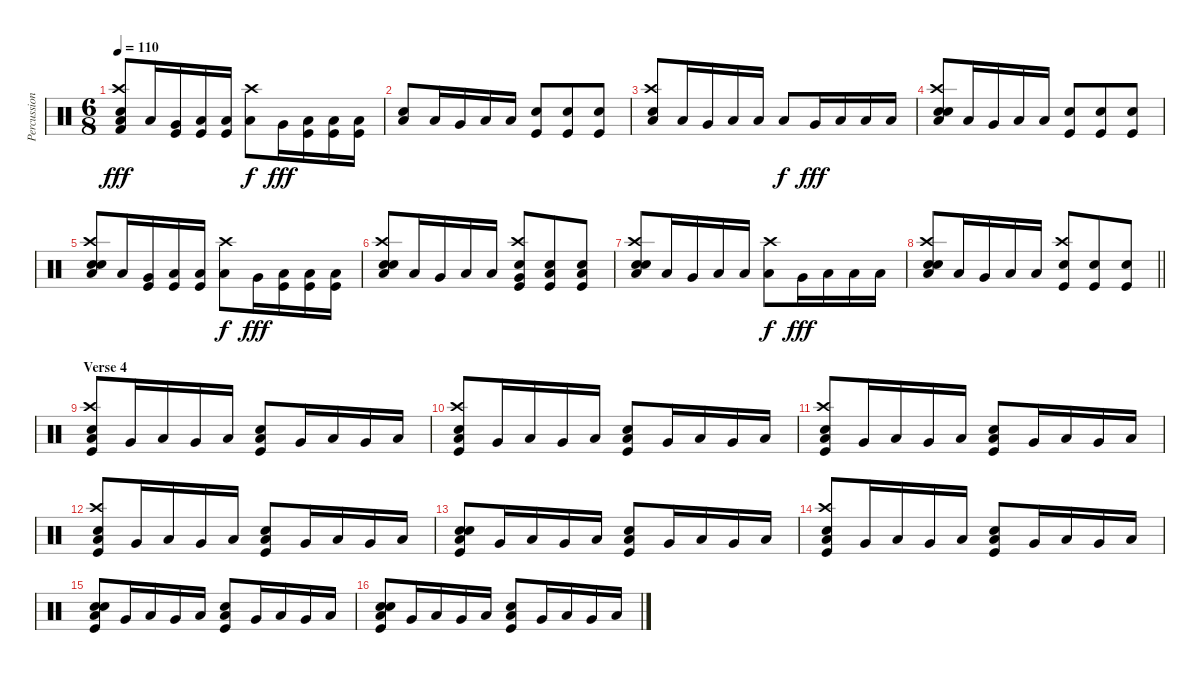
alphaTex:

\track ("Percussion" "Percussion") {instrument percussion}
\staff {score}
\articulation defaults
\ts (6 8)
\tempo 110
\clef neutral
\ks c
("Electric Snare (hit)" "Crash high (hit)" "Low Floor Tom (hit)" "Kick (hit) 2").8{dy fff} "Low Floor Tom (hit)".16 ("Very Low Tom (hit)" "Kick (hit)").16 ("Low Tom (hit)" "Kick (hit)").16 ("Low Floor Tom (hit)" "Kick (hit)").16 ("Crash high (hit)" "Low Floor Tom (hit)").8{dy f} "Very Low Tom (hit)".16{dy fff} ("Low Tom (hit)" "Kick (hit)").16 ("Low Floor Tom (hit)" "Kick (hit)").16 ("Low Floor Tom (hit)" "Kick (hit)").16 |
("Low Floor Tom (hit)" "Electric Snare (hit)").8 "Low Floor Tom (hit)".16 "Very Low Tom (hit)".16 "Low Tom (hit)".16 "Low Floor Tom (hit)".16 ("Electric Snare (hit)" "Kick (hit)").8 ("Electric Snare (hit)" "Kick (hit)").8 ("Electric Snare (hit)" "Kick (hit)").8 |
("Crash high (hit)" "Low Floor Tom (hit)" "Electric Snare (hit)").8 "Low Floor Tom (hit)".16 "Very Low Tom (hit)".16 "Low Tom (hit)".16 "Low Floor Tom (hit)".16 "Low Floor Tom (hit)".8{dy f} "Very Low Tom (hit)".16{dy fff} "Low Tom (hit)".16 "Low Floor Tom (hit)".16 "Low Floor Tom (hit)".16 |
("Snare (hit) 2" "Crash high (hit)" "Low Floor Tom (hit)" "Electric Snare (hit)").8 "Low Floor Tom (hit)".16 "Very Low Tom (hit)".16 "Low Tom (hit)".16 "Low Floor Tom (hit)".16 ("Electric Snare (hit)" "Kick (hit)").8 ("Electric Snare (hit)" "Kick (hit)").8 ("Electric Snare (hit)" "Kick (hit)").8 |
("Snare (hit) 2" "Crash high (hit)" "Low Floor Tom (hit)" "Electric Snare (hit)").8 "Low Floor Tom (hit)".16 ("Very Low Tom (hit)" "Kick (hit)").16 ("Low Tom (hit)" "Kick (hit)").16 ("Low Floor Tom (hit)" "Kick (hit)").16 ("Crash high (hit)" "Low Floor Tom (hit)").8{dy f} "Very Low Tom (hit)".16{dy fff} ("Low Tom (hit)" "Kick (hit)").16 ("Low Floor Tom (hit)" "Kick (hit)").16 ("Low Floor Tom (hit)" "Kick (hit)").16 |
("Snare (hit) 2" "Crash high (hit)" "Low Floor Tom (hit)" "Electric Snare (hit)").8 "Low Floor Tom (hit)".16 "Very Low Tom (hit)".16 "Low Tom (hit)".16 "Low Floor Tom (hit)".16 ("Crash high (hit)" "Very Low Tom (hit)" "Electric Snare (hit)" "Kick (hit)").8 ("Low Floor Tom (hit)" "Electric Snare (hit)" "Kick (hit)").8 ("Low Tom (hit)" "Electric Snare (hit)" "Kick (hit)").8 |
("Snare (hit) 2" "Crash high (hit)" "Low Floor Tom (hit)" "Electric Snare (hit)").8 "Low Floor Tom (hit)".16 "Very Low Tom (hit)".16 "Low Tom (hit)".16 "Low Floor Tom (hit)".16 ("Crash high (hit)" "Low Floor Tom (hit)").8{dy f} "Very Low Tom (hit)".16{dy fff} "Low Tom (hit)".16 "Low Floor Tom (hit)".16 "Low Floor Tom (hit)".16 |
\barLineRight lightlight
("Snare (hit) 2" "Crash high (hit)" "Low Floor Tom (hit)" "Electric Snare (hit)").8 "Low Floor Tom (hit)".16 "Very Low Tom (hit)".16 "Low Tom (hit)".16 "Low Floor Tom (hit)".16 ("Crash high (hit)" "Electric Snare (hit)" "Kick (hit)").8 ("Electric Snare (hit)" "Kick (hit)").8 ("Electric Snare (hit)" "Kick (hit)").8 |
\section ("" "Verse 4")
("Crash high (hit)" "Electric Snare (hit)" "Low Floor Tom (hit)" "Kick (hit)").8 "Very Low Tom (hit)".16 "Low Floor Tom (hit)".16 "Very Low Tom (hit)".16 "Low Floor Tom (hit)".16 ("Electric Snare (hit)" "Low Floor Tom (hit)" "Kick (hit)").8 "Very Low Tom (hit)".16 "Low Floor Tom (hit)".16 "Very Low Tom (hit)".16 "Low Floor Tom (hit)".16 |
("Crash high (hit)" "Electric Snare (hit)" "Low Floor Tom (hit)" "Kick (hit)").8 "Very Low Tom (hit)".16 "Low Floor Tom (hit)".16 "Very Low Tom (hit)".16 "Low Floor Tom (hit)".16 ("Electric Snare (hit)" "Low Floor Tom (hit)" "Kick (hit)").8 "Very Low Tom (hit)".16 "Low Floor Tom (hit)".16 "Very Low Tom (hit)".16 "Low Floor Tom (hit)".16 |
("Crash high (hit)" "Electric Snare (hit)" "Low Floor Tom (hit)" "Kick (hit)").8 "Very Low Tom (hit)".16 "Low Floor Tom (hit)".16 "Very Low Tom (hit)".16 "Low Floor Tom (hit)".16 ("Electric Snare (hit)" "Low Floor Tom (hit)" "Kick (hit)").8 "Very Low Tom (hit)".16 "Low Floor Tom (hit)".16 "Very Low Tom (hit)".16 "Low Floor Tom (hit)".16 |
("Crash high (hit)" "Electric Snare (hit)" "Low Floor Tom (hit)" "Kick (hit)").8 "Very Low Tom (hit)".16 "Low Floor Tom (hit)".16 "Very Low Tom (hit)".16 "Low Floor Tom (hit)".16 ("Electric Snare (hit)" "Low Floor Tom (hit)" "Kick (hit)").8 "Very Low Tom (hit)".16 "Low Floor Tom (hit)".16 "Very Low Tom (hit)".16 "Low Floor Tom (hit)".16 |
("Snare (hit) 2" "Electric Snare (hit)" "Low Floor Tom (hit)" "Kick (hit)").8 "Very Low Tom (hit)".16 "Low Floor Tom (hit)".16 "Very Low Tom (hit)".16 "Low Floor Tom (hit)".16 ("Electric Snare (hit)" "Low Floor Tom (hit)" "Kick (hit)").8 "Very Low Tom (hit)".16 "Low Floor Tom (hit)".16 "Very Low Tom (hit)".16 "Low Floor Tom (hit)".16 |
("Crash high (hit)" "Electric Snare (hit)" "Low Floor Tom (hit)" "Kick (hit)").8 "Very Low Tom (hit)".16 "Low Floor Tom (hit)".16 "Very Low Tom (hit)".16 "Low Floor Tom (hit)".16 ("Electric Snare (hit)" "Low Floor Tom (hit)" "Kick (hit)").8 "Very Low Tom (hit)".16 "Low Floor Tom (hit)".16 "Very Low Tom (hit)".16 "Low Floor Tom (hit)".16 |
("Snare (hit) 2" "Electric Snare (hit)" "Low Floor Tom (hit)" "Kick (hit)").8 "Very Low Tom (hit)".16 "Low Floor Tom (hit)".16 "Very Low Tom (hit)".16 "Low Floor Tom (hit)".16 ("Electric Snare (hit)" "Low Floor Tom (hit)" "Kick (hit)").8 "Very Low Tom (hit)".16 "Low Floor Tom (hit)".16 "Very Low Tom (hit)".16 "Low Floor Tom (hit)".16 |
("Snare (hit) 2" "Electric Snare (hit)" "Low Floor Tom (hit)" "Kick (hit)").8 "Very Low Tom (hit)".16 "Low Floor Tom (hit)".16 "Very Low Tom (hit)".16 "Low Floor Tom (hit)".16 ("Electric Snare (hit)" "Low Floor Tom (hit)" "Kick (hit)").8 "Very Low Tom (hit)".16 "Low Floor Tom (hit)".16 "Very Low Tom (hit)".16 "Low Floor Tom (hit)".16
